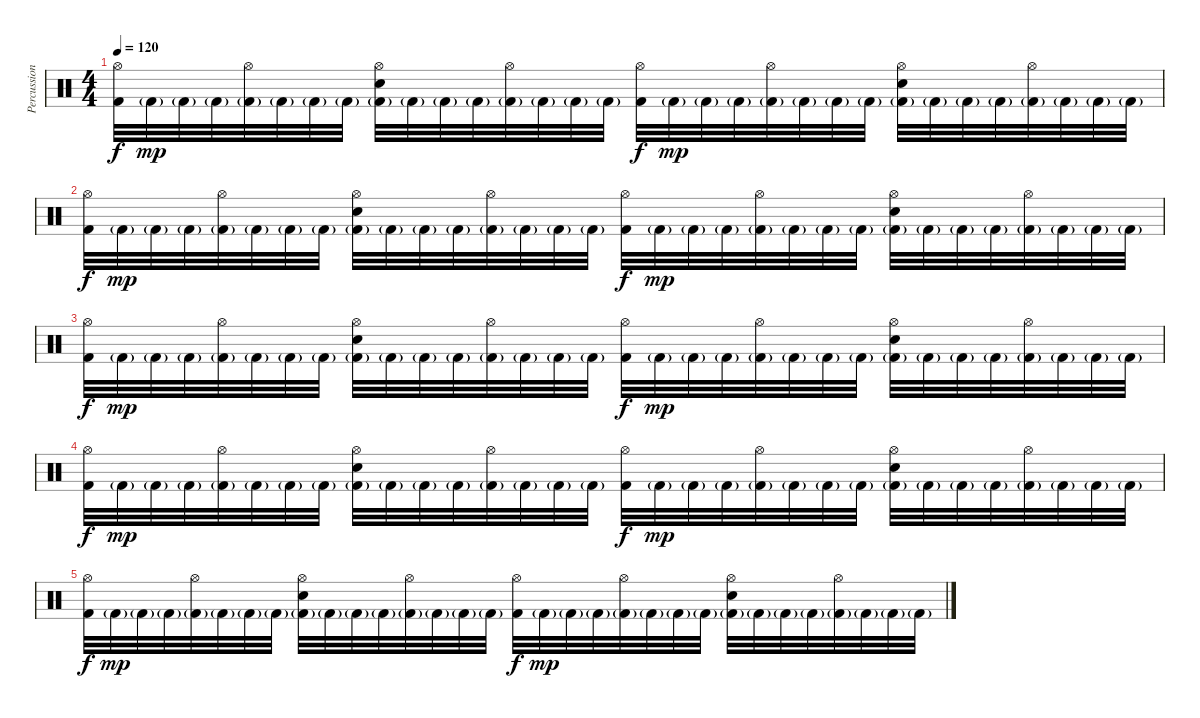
\track ("Percussion" "Percussion") {instrument percussion}
\staff {score}
\articulation defaults
\ts (4 4)
\tempo 120
\clef neutral
\ks c
("Hi-Hat (open)" "Kick (hit) 2").32{dy f} "Kick (hit) 2"{g}.32{dy mp} "Kick (hit) 2"{g}.32 "Kick (hit) 2"{g}.32 ("Hi-Hat (open)" "Kick (hit) 2"{g}).32 "Kick (hit) 2"{g}.32 "Kick (hit) 2"{g}.32 "Kick (hit) 2"{g}.32 ("Hi-Hat (open)" "Electric Snare (hit)" "Kick (hit) 2"{g}).32 "Kick (hit) 2"{g}.32 "Kick (hit) 2"{g}.32 "Kick (hit) 2"{g}.32 ("Hi-Hat (open)" "Kick (hit) 2"{g}).32 "Kick (hit) 2"{g}.32 "Kick (hit) 2"{g}.32 "Kick (hit) 2"{g}.32 ("Hi-Hat (open)" "Kick (hit) 2").32{dy f} "Kick (hit) 2"{g}.32{dy mp} "Kick (hit) 2"{g}.32 "Kick (hit) 2"{g}.32 ("Hi-Hat (open)" "Kick (hit) 2"{g}).32 "Kick (hit) 2"{g}.32 "Kick (hit) 2"{g}.32 "Kick (hit) 2"{g}.32 ("Hi-Hat (open)" "Electric Snare (hit)" "Kick (hit) 2"{g}).32 "Kick (hit) 2"{g}.32 "Kick (hit) 2"{g}.32 "Kick (hit) 2"{g}.32 ("Hi-Hat (open)" "Kick (hit) 2"{g}).32 "Kick (hit) 2"{g}.32 "Kick (hit) 2"{g}.32 "Kick (hit) 2"{g}.32 |
("Hi-Hat (open)" "Kick (hit) 2").32{dy f} "Kick (hit) 2"{g}.32{dy mp} "Kick (hit) 2"{g}.32 "Kick (hit) 2"{g}.32 ("Hi-Hat (open)" "Kick (hit) 2"{g}).32 "Kick (hit) 2"{g}.32 "Kick (hit) 2"{g}.32 "Kick (hit) 2"{g}.32 ("Hi-Hat (open)" "Electric Snare (hit)" "Kick (hit) 2"{g}).32 "Kick (hit) 2"{g}.32 "Kick (hit) 2"{g}.32 "Kick (hit) 2"{g}.32 ("Hi-Hat (open)" "Kick (hit) 2"{g}).32 "Kick (hit) 2"{g}.32 "Kick (hit) 2"{g}.32 "Kick (hit) 2"{g}.32 ("Hi-Hat (open)" "Kick (hit) 2").32{dy f} "Kick (hit) 2"{g}.32{dy mp} "Kick (hit) 2"{g}.32 "Kick (hit) 2"{g}.32 ("Hi-Hat (open)" "Kick (hit) 2"{g}).32 "Kick (hit) 2"{g}.32 "Kick (hit) 2"{g}.32 "Kick (hit) 2"{g}.32 ("Hi-Hat (open)" "Electric Snare (hit)" "Kick (hit) 2"{g}).32 "Kick (hit) 2"{g}.32 "Kick (hit) 2"{g}.32 "Kick (hit) 2"{g}.32 ("Hi-Hat (open)" "Kick (hit) 2"{g}).32 "Kick (hit) 2"{g}.32 "Kick (hit) 2"{g}.32 "Kick (hit) 2"{g}.32 |
("Hi-Hat (open)" "Kick (hit) 2").32{dy f} "Kick (hit) 2"{g}.32{dy mp} "Kick (hit) 2"{g}.32 "Kick (hit) 2"{g}.32 ("Hi-Hat (open)" "Kick (hit) 2"{g}).32 "Kick (hit) 2"{g}.32 "Kick (hit) 2"{g}.32 "Kick (hit) 2"{g}.32 ("Hi-Hat (open)" "Electric Snare (hit)" "Kick (hit) 2"{g}).32 "Kick (hit) 2"{g}.32 "Kick (hit) 2"{g}.32 "Kick (hit) 2"{g}.32 ("Hi-Hat (open)" "Kick (hit) 2"{g}).32 "Kick (hit) 2"{g}.32 "Kick (hit) 2"{g}.32 "Kick (hit) 2"{g}.32 ("Hi-Hat (open)" "Kick (hit) 2").32{dy f} "Kick (hit) 2"{g}.32{dy mp} "Kick (hit) 2"{g}.32 "Kick (hit) 2"{g}.32 ("Hi-Hat (open)" "Kick (hit) 2"{g}).32 "Kick (hit) 2"{g}.32 "Kick (hit) 2"{g}.32 "Kick (hit) 2"{g}.32 ("Hi-Hat (open)" "Electric Snare (hit)" "Kick (hit) 2"{g}).32 "Kick (hit) 2"{g}.32 "Kick (hit) 2"{g}.32 "Kick (hit) 2"{g}.32 ("Hi-Hat (open)" "Kick (hit) 2"{g}).32 "Kick (hit) 2"{g}.32 "Kick (hit) 2"{g}.32 "Kick (hit) 2"{g}.32 |
("Hi-Hat (open)" "Kick (hit) 2").32{dy f} "Kick (hit) 2"{g}.32{dy mp} "Kick (hit) 2"{g}.32 "Kick (hit) 2"{g}.32 ("Hi-Hat (open)" "Kick (hit) 2"{g}).32 "Kick (hit) 2"{g}.32 "Kick (hit) 2"{g}.32 "Kick (hit) 2"{g}.32 ("Hi-Hat (open)" "Electric Snare (hit)" "Kick (hit) 2"{g}).32 "Kick (hit) 2"{g}.32 "Kick (hit) 2"{g}.32 "Kick (hit) 2"{g}.32 ("Hi-Hat (open)" "Kick (hit) 2"{g}).32 "Kick (hit) 2"{g}.32 "Kick (hit) 2"{g}.32 "Kick (hit) 2"{g}.32 ("Hi-Hat (open)" "Kick (hit) 2").32{dy f} "Kick (hit) 2"{g}.32{dy mp} "Kick (hit) 2"{g}.32 "Kick (hit) 2"{g}.32 ("Hi-Hat (open)" "Kick (hit) 2"{g}).32 "Kick (hit) 2"{g}.32 "Kick (hit) 2"{g}.32 "Kick (hit) 2"{g}.32 ("Hi-Hat (open)" "Electric Snare (hit)" "Kick (hit) 2"{g}).32 "Kick (hit) 2"{g}.32 "Kick (hit) 2"{g}.32 "Kick (hit) 2"{g}.32 ("Hi-Hat (open)" "Kick (hit) 2"{g}).32 "Kick (hit) 2"{g}.32 "Kick (hit) 2"{g}.32 "Kick (hit) 2"{g}.32 |
("Hi-Hat (open)" "Kick (hit) 2").32{dy f} "Kick (hit) 2"{g}.32{dy mp} "Kick (hit) 2"{g}.32 "Kick (hit) 2"{g}.32 ("Hi-Hat (open)" "Kick (hit) 2"{g}).32 "Kick (hit) 2"{g}.32 "Kick (hit) 2"{g}.32 "Kick (hit) 2"{g}.32 ("Hi-Hat (open)" "Electric Snare (hit)" "Kick (hit) 2"{g}).32 "Kick (hit) 2"{g}.32 "Kick (hit) 2"{g}.32 "Kick (hit) 2"{g}.32 ("Hi-Hat (open)" "Kick (hit) 2"{g}).32 "Kick (hit) 2"{g}.32 "Kick (hit) 2"{g}.32 "Kick (hit) 2"{g}.32 ("Hi-Hat (open)" "Kick (hit) 2").32{dy f} "Kick (hit) 2"{g}.32{dy mp} "Kick (hit) 2"{g}.32 "Kick (hit) 2"{g}.32 ("Hi-Hat (open)" "Kick (hit) 2"{g}).32 "Kick (hit) 2"{g}.32 "Kick (hit) 2"{g}.32 "Kick (hit) 2"{g}.32 ("Hi-Hat (open)" "Electric Snare (hit)" "Kick (hit) 2"{g}).32 "Kick (hit) 2"{g}.32 "Kick (hit) 2"{g}.32 "Kick (hit) 2"{g}.32 ("Hi-Hat (open)" "Kick (hit) 2"{g}).32 "Kick (hit) 2"{g}.32 "Kick (hit) 2"{g}.32 "Kick (hit) 2"{g}.32
